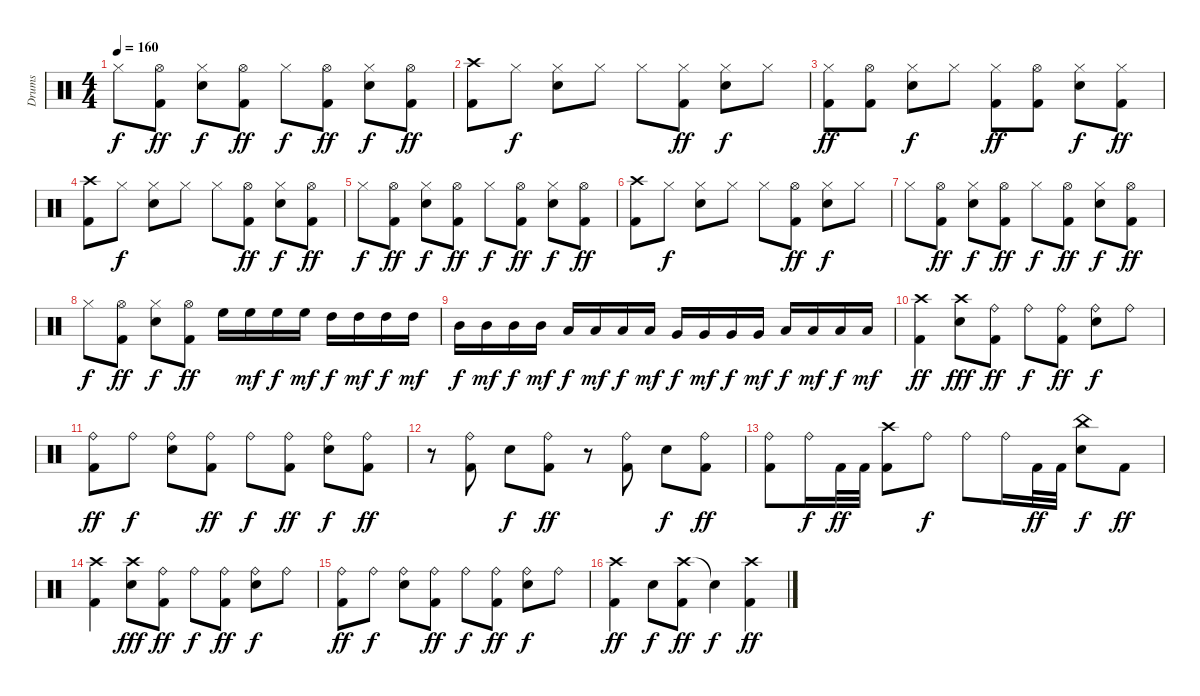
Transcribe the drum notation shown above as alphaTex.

\track ("Drums" "Drums") {instrument percussion}
\staff {score}
\articulation defaults
\ts (4 4)
\tempo 160
\clef neutral
\ks c "Hi-Hat (closed)".8{dy f}
("Hi-Hat (open)" "Kick (hit) 2").8{dy ff} ("Hi-Hat (closed)" "Snare (hit) 2").8{dy f} ("Hi-Hat (open)" "Kick (hit) 2").8{dy ff} "Hi-Hat (closed)".8{dy f} ("Hi-Hat (open)" "Kick (hit) 2").8{dy ff} ("Hi-Hat (closed)" "Snare (hit) 2").8{dy f} ("Hi-Hat (open)" "Kick (hit) 2").8{dy ff} |
("Crash high (hit)" "Kick (hit) 2").8 "Hi-Hat (closed)".8{dy f} ("Hi-Hat (closed)" "Snare (hit) 2").8 "Hi-Hat (closed)".8 "Hi-Hat (closed)".8 ("Hi-Hat (closed)" "Kick (hit) 2").8{dy ff} ("Hi-Hat (closed)" "Snare (hit) 2").8{dy f} "Hi-Hat (closed)".8 |
("Hi-Hat (closed)" "Kick (hit) 2").8{dy ff} ("Hi-Hat (open)" "Kick (hit) 2").8 ("Hi-Hat (closed)" "Snare (hit) 2").8{dy f} "Hi-Hat (closed)".8 ("Hi-Hat (closed)" "Kick (hit) 2").8{dy ff} ("Hi-Hat (open)" "Kick (hit) 2").8 ("Hi-Hat (closed)" "Snare (hit) 2").8{dy f} ("Hi-Hat (closed)" "Kick (hit) 2").8{dy ff} |
("Crash high (hit)" "Kick (hit) 2").8 "Hi-Hat (closed)".8{dy f} ("Hi-Hat (closed)" "Snare (hit) 2").8 "Hi-Hat (closed)".8 "Hi-Hat (closed)".8 ("Hi-Hat (open)" "Kick (hit) 2").8{dy ff} ("Hi-Hat (closed)" "Snare (hit) 2").8{dy f} ("Hi-Hat (open)" "Kick (hit) 2").8{dy ff} |
"Hi-Hat (closed)".8{dy f} ("Hi-Hat (open)" "Kick (hit) 2").8{dy ff} ("Hi-Hat (closed)" "Snare (hit) 2").8{dy f} ("Hi-Hat (open)" "Kick (hit) 2").8{dy ff} "Hi-Hat (closed)".8{dy f} ("Hi-Hat (open)" "Kick (hit) 2").8{dy ff} ("Hi-Hat (closed)" "Snare (hit) 2").8{dy f} ("Hi-Hat (open)" "Kick (hit) 2").8{dy ff} |
("Crash high (hit)" "Kick (hit) 2").8 "Hi-Hat (closed)".8{dy f} ("Hi-Hat (closed)" "Snare (hit) 2").8 "Hi-Hat (closed)".8 "Hi-Hat (closed)".8 ("Hi-Hat (open)" "Kick (hit) 2").8{dy ff} ("Hi-Hat (closed)" "Snare (hit) 2").8{dy f} "Hi-Hat (closed)".8 |
"Hi-Hat (closed)".8 ("Hi-Hat (open)" "Kick (hit) 2").8{dy ff} ("Hi-Hat (closed)" "Snare (hit) 2").8{dy f} ("Hi-Hat (open)" "Kick (hit) 2").8{dy ff} "Hi-Hat (closed)".8{dy f} ("Hi-Hat (open)" "Kick (hit) 2").8{dy ff} ("Hi-Hat (closed)" "Snare (hit) 2").8{dy f} ("Hi-Hat (open)" "Kick (hit) 2").8{dy ff} |
"Hi-Hat (closed)".8{dy f} ("Hi-Hat (open)" "Kick (hit) 2").8{dy ff} ("Hi-Hat (closed)" "Snare (hit) 2").8{dy f} ("Hi-Hat (open)" "Kick (hit) 2").8{dy ff} "High Floor Tom (hit)".16 "High Floor Tom (hit)".16{dy mf} "High Floor Tom (hit)".16{dy f} "High Floor Tom (hit)".16{dy mf} "High Tom (hit)".16{dy f} "High Tom (hit)".16{dy mf} "High Tom (hit)".16{dy f} "High Tom (hit)".16{dy mf} |
"Mid Tom (hit)".16{dy f} "Mid Tom (hit)".16{dy mf} "Mid Tom (hit)".16{dy f} "Mid Tom (hit)".16{dy mf} "Low Tom (hit)".16{dy f} "Low Tom (hit)".16{dy mf} "Low Tom (hit)".16{dy f} "Low Tom (hit)".16{dy mf} "Very Low Tom (hit)".16{dy f} "Very Low Tom (hit)".16{dy mf} "Very Low Tom (hit)".16{dy f} "Very Low Tom (hit)".16{dy mf} "Low Floor Tom (hit)".16{dy f} "Low Floor Tom (hit)".16{dy mf} "Low Floor Tom (hit)".16{dy f} "Low Floor Tom (hit)".16{dy mf} |
("Crash high (hit)" "Kick (hit) 2").4{dy ff} ("Crash high (hit)" "Snare (hit) 2").8{dy fff} ("Ride (bell)" "Kick (hit) 2").8{dy ff} "Ride (bell)".8{dy f} ("Ride (bell)" "Kick (hit) 2").8{dy ff} ("Ride (bell)" "Snare (hit) 2").8{dy f} "Ride (bell)".8 |
("Ride (bell)" "Kick (hit) 2").8{dy ff} "Ride (bell)".8{dy f} ("Ride (bell)" "Snare (hit) 2").8 ("Ride (bell)" "Kick (hit) 2").8{dy ff} "Ride (bell)".8{dy f} ("Ride (bell)" "Kick (hit) 2").8{dy ff} ("Ride (bell)" "Snare (hit) 2").8{dy f} ("Ride (bell)" "Kick (hit) 2").8{dy ff} |
r.8 ("Ride (bell)" "Kick (hit) 2").8 "Snare (hit) 2".8{dy f} ("Ride (bell)" "Kick (hit) 2").8{dy ff} r.8 ("Ride (bell)" "Kick (hit) 2").8 "Snare (hit) 2".8{dy f} ("Ride (bell)" "Kick (hit) 2").8{dy ff} |
("Ride (bell)" "Kick (hit) 2").8 "Ride (bell)".16{dy f} "Kick (hit) 2".32{dy ff} "Kick (hit) 2".32 ("Crash high (hit)" "Kick (hit) 2").8 "Ride (bell)".8{dy f} "Ride (bell)".8 "Ride (bell)".16 "Kick (hit) 2".32{dy ff} "Kick (hit) 2".32 ("China (hit)" "Snare (hit) 2").8{dy f} "Kick (hit) 2".8{dy ff} |
("Crash high (hit)" "Kick (hit) 2").4 ("Crash high (hit)" "Snare (hit) 2").8{dy fff} ("Ride (bell)" "Kick (hit) 2").8{dy ff} "Ride (bell)".8{dy f} ("Ride (bell)" "Kick (hit) 2").8{dy ff} ("Ride (bell)" "Snare (hit) 2").8{dy f} "Ride (bell)".8 |
("Ride (bell)" "Kick (hit) 2").8{dy ff} "Ride (bell)".8{dy f} ("Ride (bell)" "Snare (hit) 2").8 ("Ride (bell)" "Kick (hit) 2").8{dy ff} "Ride (bell)".8{dy f} ("Ride (bell)" "Kick (hit) 2").8{dy ff} ("Ride (bell)" "Snare (hit) 2").8{dy f} "Ride (bell)".8 |
("Crash high (hit)" "Kick (hit) 2").4{dy ff} "Snare (hit) 2".8{dy f} ("Crash high (hit)" "Kick (hit) 2").8{dy ff} "Snare (hit)"{t}.4{dy f} ("Crash high (hit)" "Kick (hit) 2").4{dy ff}
